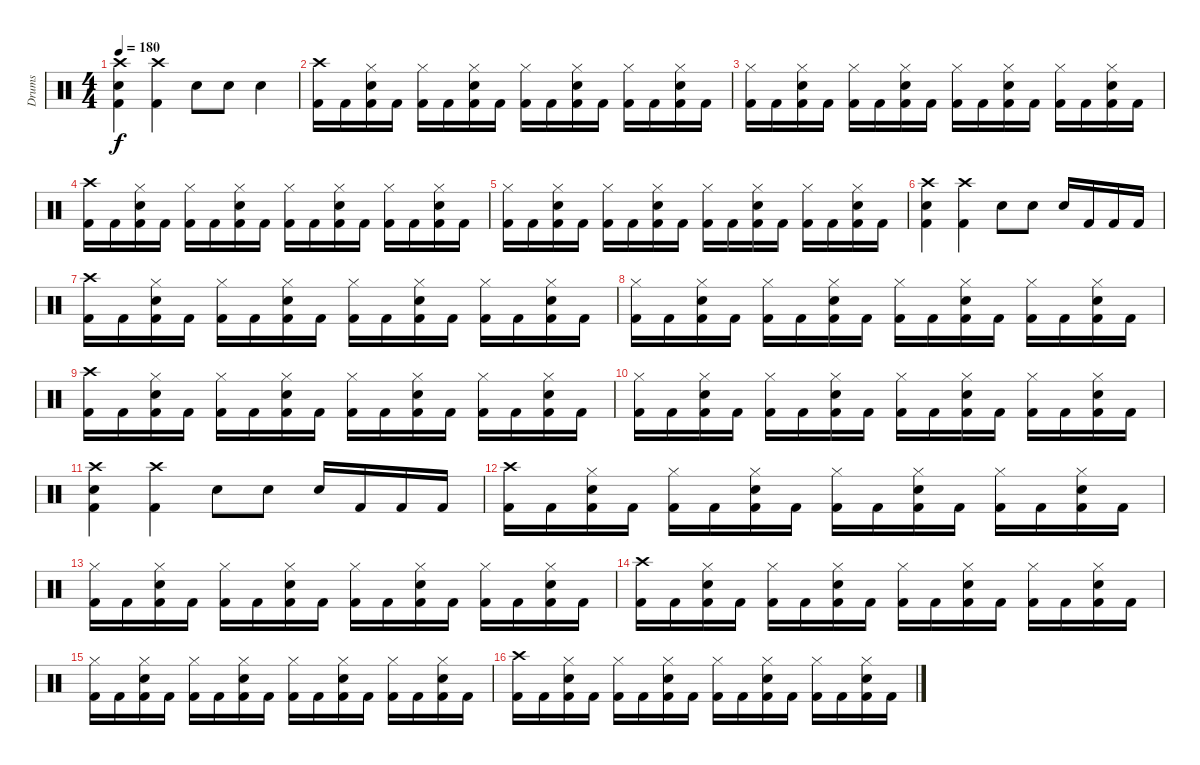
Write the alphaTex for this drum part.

\track ("Drums" "Drums") {instrument percussion}
\staff {score}
\articulation defaults
\ts (4 4)
\tempo 180
\clef neutral
\ks c
("Crash high (hit)" "Electric Snare (hit)" "Kick (hit) 2").4{dy f} ("Crash high (hit)" "Kick (hit) 2").4 "Electric Snare (hit)".8 "Electric Snare (hit)".8 "Electric Snare (hit)".4 |
("Crash high (hit)" "Kick (hit) 2").16 "Kick (hit) 2".16 ("Hi-Hat (closed)" "Electric Snare (hit)" "Kick (hit) 2").16 "Kick (hit) 2".16 ("Hi-Hat (closed)" "Kick (hit) 2").16 "Kick (hit) 2".16 ("Hi-Hat (closed)" "Electric Snare (hit)" "Kick (hit) 2").16 "Kick (hit) 2".16 ("Hi-Hat (closed)" "Kick (hit) 2").16 "Kick (hit) 2".16 ("Hi-Hat (closed)" "Electric Snare (hit)" "Kick (hit) 2").16 "Kick (hit) 2".16 ("Hi-Hat (closed)" "Kick (hit) 2").16 "Kick (hit) 2".16 ("Hi-Hat (closed)" "Electric Snare (hit)" "Kick (hit) 2").16 "Kick (hit) 2".16 |
("Hi-Hat (closed)" "Kick (hit) 2").16 "Kick (hit) 2".16 ("Hi-Hat (closed)" "Electric Snare (hit)" "Kick (hit) 2").16 "Kick (hit) 2".16 ("Hi-Hat (closed)" "Kick (hit) 2").16 "Kick (hit) 2".16 ("Hi-Hat (closed)" "Electric Snare (hit)" "Kick (hit) 2").16 "Kick (hit) 2".16 ("Hi-Hat (closed)" "Kick (hit) 2").16 "Kick (hit) 2".16 ("Hi-Hat (closed)" "Electric Snare (hit)" "Kick (hit) 2").16 "Kick (hit) 2".16 ("Hi-Hat (closed)" "Kick (hit) 2").16 "Kick (hit) 2".16 ("Hi-Hat (closed)" "Electric Snare (hit)" "Kick (hit) 2").16 "Kick (hit) 2".16 |
("Crash high (hit)" "Kick (hit) 2").16 "Kick (hit) 2".16 ("Hi-Hat (closed)" "Electric Snare (hit)" "Kick (hit) 2").16 "Kick (hit) 2".16 ("Hi-Hat (closed)" "Kick (hit) 2").16 "Kick (hit) 2".16 ("Hi-Hat (closed)" "Electric Snare (hit)" "Kick (hit) 2").16 "Kick (hit) 2".16 ("Hi-Hat (closed)" "Kick (hit) 2").16 "Kick (hit) 2".16 ("Hi-Hat (closed)" "Electric Snare (hit)" "Kick (hit) 2").16 "Kick (hit) 2".16 ("Hi-Hat (closed)" "Kick (hit) 2").16 "Kick (hit) 2".16 ("Hi-Hat (closed)" "Electric Snare (hit)" "Kick (hit) 2").16 "Kick (hit) 2".16 |
("Hi-Hat (closed)" "Kick (hit) 2").16 "Kick (hit) 2".16 ("Hi-Hat (closed)" "Electric Snare (hit)" "Kick (hit) 2").16 "Kick (hit) 2".16 ("Hi-Hat (closed)" "Kick (hit) 2").16 "Kick (hit) 2".16 ("Hi-Hat (closed)" "Electric Snare (hit)" "Kick (hit) 2").16 "Kick (hit) 2".16 ("Hi-Hat (closed)" "Kick (hit) 2").16 "Kick (hit) 2".16 ("Hi-Hat (closed)" "Electric Snare (hit)" "Kick (hit) 2").16 "Kick (hit) 2".16 ("Hi-Hat (closed)" "Kick (hit) 2").16 "Kick (hit) 2".16 ("Hi-Hat (closed)" "Electric Snare (hit)" "Kick (hit) 2").16 "Kick (hit) 2".16 |
("Crash high (hit)" "Electric Snare (hit)" "Kick (hit) 2").4 ("Crash high (hit)" "Kick (hit) 2").4 "Electric Snare (hit)".8 "Electric Snare (hit)".8 "Electric Snare (hit)".16 "Kick (hit) 2".16 "Kick (hit) 2".16 "Kick (hit) 2".16 |
("Crash high (hit)" "Kick (hit) 2").16 "Kick (hit) 2".16 ("Hi-Hat (closed)" "Electric Snare (hit)" "Kick (hit) 2").16 "Kick (hit) 2".16 ("Hi-Hat (closed)" "Kick (hit) 2").16 "Kick (hit) 2".16 ("Hi-Hat (closed)" "Electric Snare (hit)" "Kick (hit) 2").16 "Kick (hit) 2".16 ("Hi-Hat (closed)" "Kick (hit) 2").16 "Kick (hit) 2".16 ("Hi-Hat (closed)" "Electric Snare (hit)" "Kick (hit) 2").16 "Kick (hit) 2".16 ("Hi-Hat (closed)" "Kick (hit) 2").16 "Kick (hit) 2".16 ("Hi-Hat (closed)" "Electric Snare (hit)" "Kick (hit) 2").16 "Kick (hit) 2".16 |
("Hi-Hat (closed)" "Kick (hit) 2").16 "Kick (hit) 2".16 ("Hi-Hat (closed)" "Electric Snare (hit)" "Kick (hit) 2").16 "Kick (hit) 2".16 ("Hi-Hat (closed)" "Kick (hit) 2").16 "Kick (hit) 2".16 ("Hi-Hat (closed)" "Electric Snare (hit)" "Kick (hit) 2").16 "Kick (hit) 2".16 ("Hi-Hat (closed)" "Kick (hit) 2").16 "Kick (hit) 2".16 ("Hi-Hat (closed)" "Electric Snare (hit)" "Kick (hit) 2").16 "Kick (hit) 2".16 ("Hi-Hat (closed)" "Kick (hit) 2").16 "Kick (hit) 2".16 ("Hi-Hat (closed)" "Electric Snare (hit)" "Kick (hit) 2").16 "Kick (hit) 2".16 |
("Crash high (hit)" "Kick (hit) 2").16 "Kick (hit) 2".16 ("Hi-Hat (closed)" "Electric Snare (hit)" "Kick (hit) 2").16 "Kick (hit) 2".16 ("Hi-Hat (closed)" "Kick (hit) 2").16 "Kick (hit) 2".16 ("Hi-Hat (closed)" "Electric Snare (hit)" "Kick (hit) 2").16 "Kick (hit) 2".16 ("Hi-Hat (closed)" "Kick (hit) 2").16 "Kick (hit) 2".16 ("Hi-Hat (closed)" "Electric Snare (hit)" "Kick (hit) 2").16 "Kick (hit) 2".16 ("Hi-Hat (closed)" "Kick (hit) 2").16 "Kick (hit) 2".16 ("Hi-Hat (closed)" "Electric Snare (hit)" "Kick (hit) 2").16 "Kick (hit) 2".16 |
("Hi-Hat (closed)" "Kick (hit) 2").16 "Kick (hit) 2".16 ("Hi-Hat (closed)" "Electric Snare (hit)" "Kick (hit) 2").16 "Kick (hit) 2".16 ("Hi-Hat (closed)" "Kick (hit) 2").16 "Kick (hit) 2".16 ("Hi-Hat (closed)" "Electric Snare (hit)" "Kick (hit) 2").16 "Kick (hit) 2".16 ("Hi-Hat (closed)" "Kick (hit) 2").16 "Kick (hit) 2".16 ("Hi-Hat (closed)" "Electric Snare (hit)" "Kick (hit) 2").16 "Kick (hit) 2".16 ("Hi-Hat (closed)" "Kick (hit) 2").16 "Kick (hit) 2".16 ("Hi-Hat (closed)" "Electric Snare (hit)" "Kick (hit) 2").16 "Kick (hit) 2".16 |
("Crash high (hit)" "Electric Snare (hit)" "Kick (hit) 2").4 ("Crash high (hit)" "Kick (hit) 2").4 "Electric Snare (hit)".8 "Electric Snare (hit)".8 "Electric Snare (hit)".16 "Kick (hit) 2".16 "Kick (hit) 2".16 "Kick (hit) 2".16 |
("Crash high (hit)" "Kick (hit) 2").16 "Kick (hit) 2".16 ("Hi-Hat (closed)" "Electric Snare (hit)" "Kick (hit) 2").16 "Kick (hit) 2".16 ("Hi-Hat (closed)" "Kick (hit) 2").16 "Kick (hit) 2".16 ("Hi-Hat (closed)" "Electric Snare (hit)" "Kick (hit) 2").16 "Kick (hit) 2".16 ("Hi-Hat (closed)" "Kick (hit) 2").16 "Kick (hit) 2".16 ("Hi-Hat (closed)" "Electric Snare (hit)" "Kick (hit) 2").16 "Kick (hit) 2".16 ("Hi-Hat (closed)" "Kick (hit) 2").16 "Kick (hit) 2".16 ("Hi-Hat (closed)" "Electric Snare (hit)" "Kick (hit) 2").16 "Kick (hit) 2".16 |
("Hi-Hat (closed)" "Kick (hit) 2").16 "Kick (hit) 2".16 ("Hi-Hat (closed)" "Electric Snare (hit)" "Kick (hit) 2").16 "Kick (hit) 2".16 ("Hi-Hat (closed)" "Kick (hit) 2").16 "Kick (hit) 2".16 ("Hi-Hat (closed)" "Electric Snare (hit)" "Kick (hit) 2").16 "Kick (hit) 2".16 ("Hi-Hat (closed)" "Kick (hit) 2").16 "Kick (hit) 2".16 ("Hi-Hat (closed)" "Electric Snare (hit)" "Kick (hit) 2").16 "Kick (hit) 2".16 ("Hi-Hat (closed)" "Kick (hit) 2").16 "Kick (hit) 2".16 ("Hi-Hat (closed)" "Electric Snare (hit)" "Kick (hit) 2").16 "Kick (hit) 2".16 |
("Crash high (hit)" "Kick (hit) 2").16 "Kick (hit) 2".16 ("Hi-Hat (closed)" "Electric Snare (hit)" "Kick (hit) 2").16 "Kick (hit) 2".16 ("Hi-Hat (closed)" "Kick (hit) 2").16 "Kick (hit) 2".16 ("Hi-Hat (closed)" "Electric Snare (hit)" "Kick (hit) 2").16 "Kick (hit) 2".16 ("Hi-Hat (closed)" "Kick (hit) 2").16 "Kick (hit) 2".16 ("Hi-Hat (closed)" "Electric Snare (hit)" "Kick (hit) 2").16 "Kick (hit) 2".16 ("Hi-Hat (closed)" "Kick (hit) 2").16 "Kick (hit) 2".16 ("Hi-Hat (closed)" "Electric Snare (hit)" "Kick (hit) 2").16 "Kick (hit) 2".16 |
("Hi-Hat (closed)" "Kick (hit) 2").16 "Kick (hit) 2".16 ("Hi-Hat (closed)" "Electric Snare (hit)" "Kick (hit) 2").16 "Kick (hit) 2".16 ("Hi-Hat (closed)" "Kick (hit) 2").16 "Kick (hit) 2".16 ("Hi-Hat (closed)" "Electric Snare (hit)" "Kick (hit) 2").16 "Kick (hit) 2".16 ("Hi-Hat (closed)" "Kick (hit) 2").16 "Kick (hit) 2".16 ("Hi-Hat (closed)" "Electric Snare (hit)" "Kick (hit) 2").16 "Kick (hit) 2".16 ("Hi-Hat (closed)" "Kick (hit) 2").16 "Kick (hit) 2".16 ("Hi-Hat (closed)" "Electric Snare (hit)" "Kick (hit) 2").16 "Kick (hit) 2".16 |
("Crash high (hit)" "Kick (hit) 2").16 "Kick (hit) 2".16 ("Hi-Hat (closed)" "Electric Snare (hit)" "Kick (hit) 2").16 "Kick (hit) 2".16 ("Hi-Hat (closed)" "Kick (hit) 2").16 "Kick (hit) 2".16 ("Hi-Hat (closed)" "Electric Snare (hit)" "Kick (hit) 2").16 "Kick (hit) 2".16 ("Hi-Hat (closed)" "Kick (hit) 2").16 "Kick (hit) 2".16 ("Hi-Hat (closed)" "Electric Snare (hit)" "Kick (hit) 2").16 "Kick (hit) 2".16 ("Hi-Hat (closed)" "Kick (hit) 2").16 "Kick (hit) 2".16 ("Hi-Hat (closed)" "Electric Snare (hit)" "Kick (hit) 2").16 "Kick (hit) 2".16
